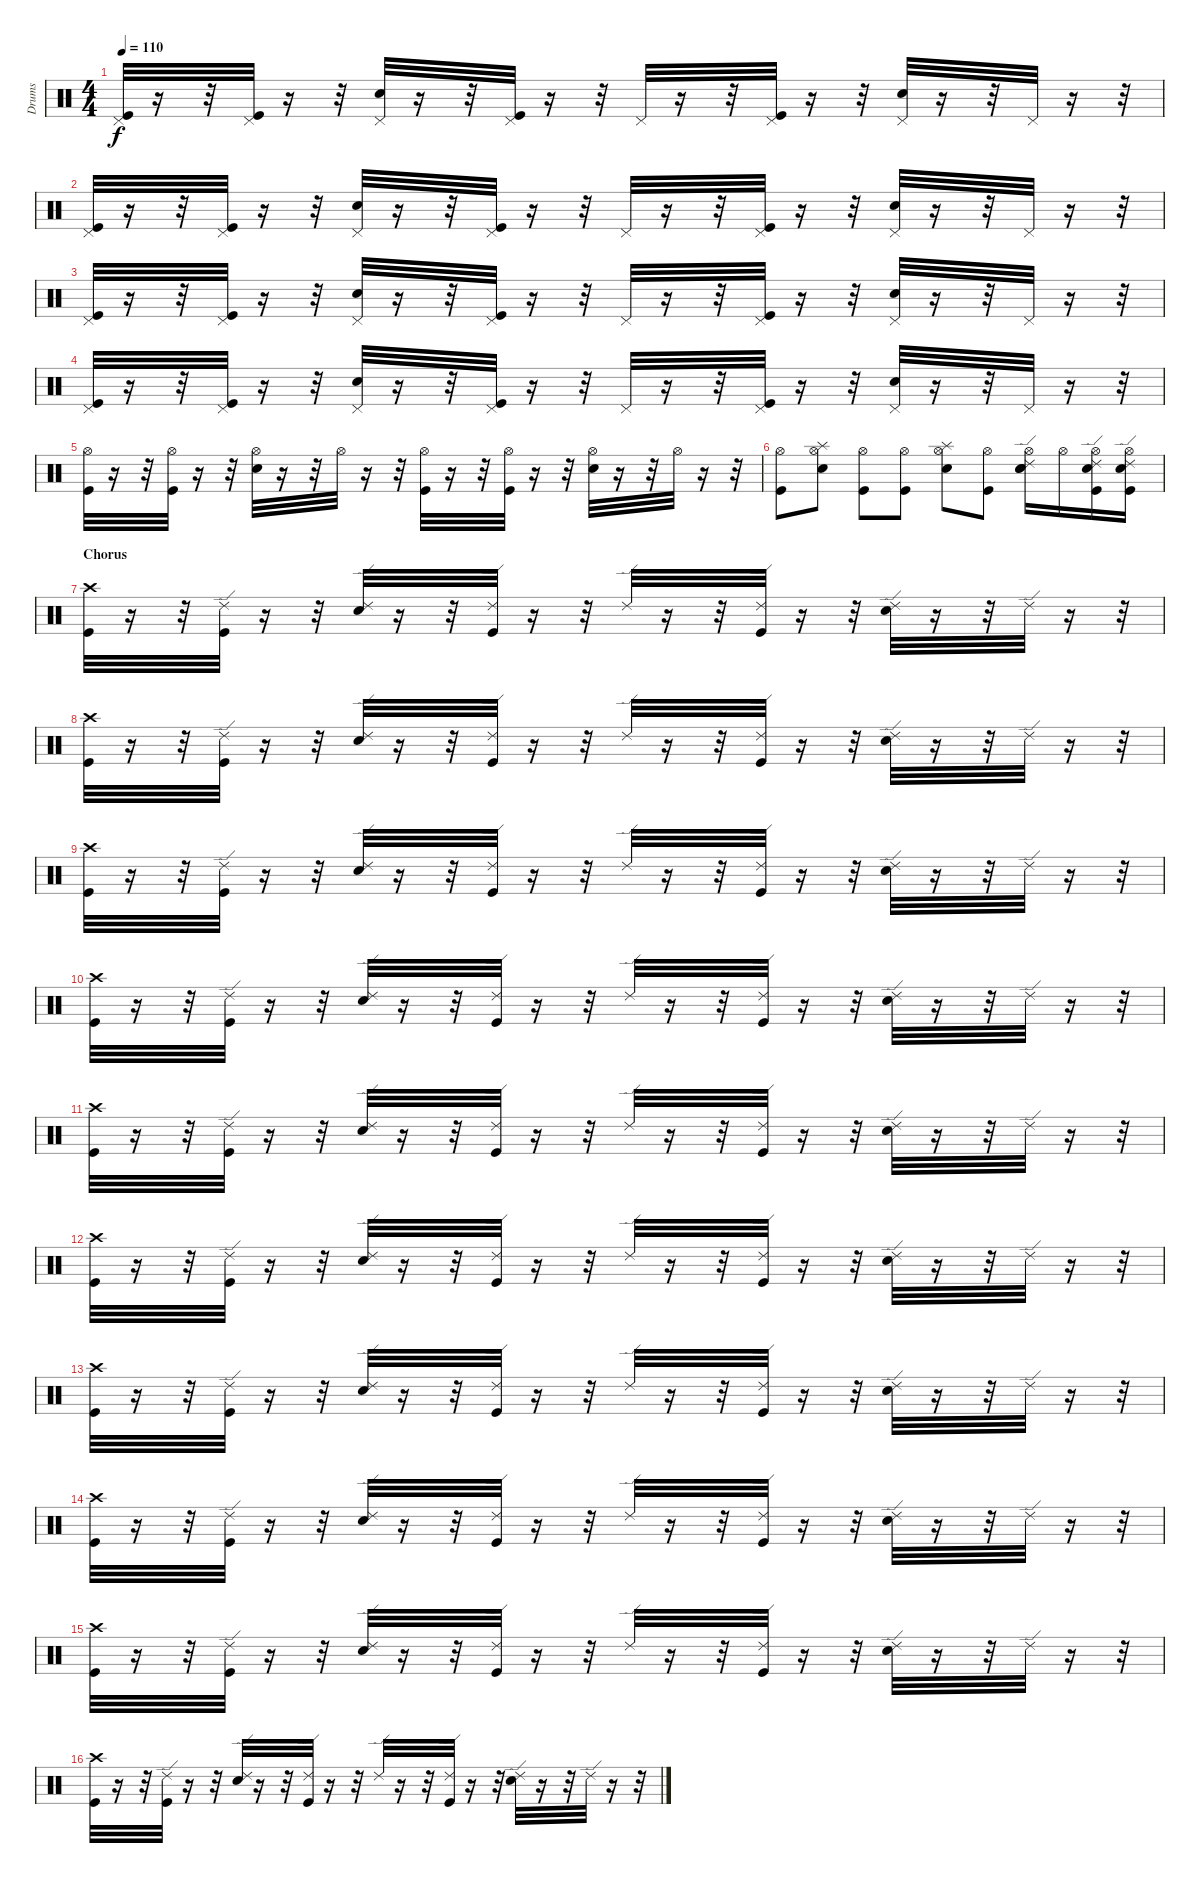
\track ("Drums" "Drums") {instrument percussion}
\staff {score}
\articulation defaults
\ts (4 4)
\tempo 110
\clef neutral
\ks c
("Pedal Hi-Hat (hit)" "Kick (hit)").32{dy f} r.16 r.32 ("Pedal Hi-Hat (hit)" "Kick (hit)").32 r.16 r.32 ("Pedal Hi-Hat (hit)" "Electric Snare (hit)").32 r.16 r.32 ("Pedal Hi-Hat (hit)" "Kick (hit)").32 r.16 r.32 "Pedal Hi-Hat (hit)".32 r.16 r.32 ("Pedal Hi-Hat (hit)" "Kick (hit)").32 r.16 r.32 ("Pedal Hi-Hat (hit)" "Electric Snare (hit)").32 r.16 r.32 "Pedal Hi-Hat (hit)".32 r.16 r.32 |
("Pedal Hi-Hat (hit)" "Kick (hit)").32 r.16 r.32 ("Pedal Hi-Hat (hit)" "Kick (hit)").32 r.16 r.32 ("Pedal Hi-Hat (hit)" "Electric Snare (hit)").32 r.16 r.32 ("Pedal Hi-Hat (hit)" "Kick (hit)").32 r.16 r.32 "Pedal Hi-Hat (hit)".32 r.16 r.32 ("Pedal Hi-Hat (hit)" "Kick (hit)").32 r.16 r.32 ("Pedal Hi-Hat (hit)" "Electric Snare (hit)").32 r.16 r.32 "Pedal Hi-Hat (hit)".32 r.16 r.32 |
("Pedal Hi-Hat (hit)" "Kick (hit)").32 r.16 r.32 ("Pedal Hi-Hat (hit)" "Kick (hit)").32 r.16 r.32 ("Pedal Hi-Hat (hit)" "Electric Snare (hit)").32 r.16 r.32 ("Pedal Hi-Hat (hit)" "Kick (hit)").32 r.16 r.32 "Pedal Hi-Hat (hit)".32 r.16 r.32 ("Pedal Hi-Hat (hit)" "Kick (hit)").32 r.16 r.32 ("Pedal Hi-Hat (hit)" "Electric Snare (hit)").32 r.16 r.32 "Pedal Hi-Hat (hit)".32 r.16 r.32 |
("Pedal Hi-Hat (hit)" "Kick (hit)").32 r.16 r.32 ("Pedal Hi-Hat (hit)" "Kick (hit)").32 r.16 r.32 ("Pedal Hi-Hat (hit)" "Electric Snare (hit)").32 r.16 r.32 ("Pedal Hi-Hat (hit)" "Kick (hit)").32 r.16 r.32 "Pedal Hi-Hat (hit)".32 r.16 r.32 ("Pedal Hi-Hat (hit)" "Kick (hit)").32 r.16 r.32 ("Pedal Hi-Hat (hit)" "Electric Snare (hit)").32 r.16 r.32 "Pedal Hi-Hat (hit)".32 r.16 r.32 |
("Hi-Hat (open)" "Kick (hit)").32 r.16 r.32 ("Hi-Hat (open)" "Kick (hit)").32 r.16 r.32 ("Hi-Hat (open)" "Electric Snare (hit)").32 r.16 r.32 "Hi-Hat (open)".32 r.16 r.32 ("Hi-Hat (open)" "Kick (hit)").32 r.16 r.32 ("Hi-Hat (open)" "Kick (hit)").32 r.16 r.32 ("Hi-Hat (open)" "Electric Snare (hit)").32 r.16 r.32 "Hi-Hat (open)".32 r.16 r.32 |
("Kick (hit)" "Hi-Hat (open)").8 ("Splash (hit)" "Snare (hit) 2" "Hi-Hat (open)").8 ("Kick (hit)" "Hi-Hat (open)").8 ("Kick (hit)" "Hi-Hat (open)").8 ("Splash (hit)" "Snare (hit) 2" "Hi-Hat (open)").8 ("Kick (hit)" "Hi-Hat (open)").8 ("Ride (edge) 2" "Electric Snare (hit)" "Snare (hit) 2" "Hi-Hat (open)").16 "Hi-Hat (open)".16 ("Ride (edge) 2" "Kick (hit)" "Snare (hit) 2" "Hi-Hat (open)").16 ("Ride (edge) 2" "Kick (hit)" "Snare (hit) 2" "Hi-Hat (open)").16 |
\section ("" "Chorus")
("Kick (hit)" "Crash high (hit)").32 r.16 r.32 ("Ride (edge) 2" "Kick (hit)").32 r.16 r.32 ("Ride (edge) 2" "Electric Snare (hit)").32 r.16 r.32 ("Ride (edge) 2" "Kick (hit)").32 r.16 r.32 "Ride (edge) 2".32 r.16 r.32 ("Ride (edge) 2" "Kick (hit)").32 r.16 r.32 ("Ride (edge) 2" "Electric Snare (hit)").32 r.16 r.32 "Ride (edge) 2".32 r.16 r.32 |
("Kick (hit)" "Crash high (hit)").32 r.16 r.32 ("Ride (edge) 2" "Kick (hit)").32 r.16 r.32 ("Ride (edge) 2" "Electric Snare (hit)").32 r.16 r.32 ("Ride (edge) 2" "Kick (hit)").32 r.16 r.32 "Ride (edge) 2".32 r.16 r.32 ("Ride (edge) 2" "Kick (hit)").32 r.16 r.32 ("Ride (edge) 2" "Electric Snare (hit)").32 r.16 r.32 "Ride (edge) 2".32 r.16 r.32 |
("Kick (hit)" "Crash high (hit)").32 r.16 r.32 ("Ride (edge) 2" "Kick (hit)").32 r.16 r.32 ("Ride (edge) 2" "Electric Snare (hit)").32 r.16 r.32 ("Ride (edge) 2" "Kick (hit)").32 r.16 r.32 "Ride (edge) 2".32 r.16 r.32 ("Ride (edge) 2" "Kick (hit)").32 r.16 r.32 ("Ride (edge) 2" "Electric Snare (hit)").32 r.16 r.32 "Ride (edge) 2".32 r.16 r.32 |
("Kick (hit)" "Crash high (hit)").32 r.16 r.32 ("Ride (edge) 2" "Kick (hit)").32 r.16 r.32 ("Ride (edge) 2" "Electric Snare (hit)").32 r.16 r.32 ("Ride (edge) 2" "Kick (hit)").32 r.16 r.32 "Ride (edge) 2".32 r.16 r.32 ("Ride (edge) 2" "Kick (hit)").32 r.16 r.32 ("Ride (edge) 2" "Electric Snare (hit)").32 r.16 r.32 "Ride (edge) 2".32 r.16 r.32 |
("Kick (hit)" "Crash high (hit)").32 r.16 r.32 ("Ride (edge) 2" "Kick (hit)").32 r.16 r.32 ("Ride (edge) 2" "Electric Snare (hit)").32 r.16 r.32 ("Ride (edge) 2" "Kick (hit)").32 r.16 r.32 "Ride (edge) 2".32 r.16 r.32 ("Ride (edge) 2" "Kick (hit)").32 r.16 r.32 ("Ride (edge) 2" "Electric Snare (hit)").32 r.16 r.32 "Ride (edge) 2".32 r.16 r.32 |
("Kick (hit)" "Crash high (hit)").32 r.16 r.32 ("Ride (edge) 2" "Kick (hit)").32 r.16 r.32 ("Ride (edge) 2" "Electric Snare (hit)").32 r.16 r.32 ("Ride (edge) 2" "Kick (hit)").32 r.16 r.32 "Ride (edge) 2".32 r.16 r.32 ("Ride (edge) 2" "Kick (hit)").32 r.16 r.32 ("Ride (edge) 2" "Electric Snare (hit)").32 r.16 r.32 "Ride (edge) 2".32 r.16 r.32 |
("Kick (hit)" "Crash high (hit)").32 r.16 r.32 ("Ride (edge) 2" "Kick (hit)").32 r.16 r.32 ("Ride (edge) 2" "Electric Snare (hit)").32 r.16 r.32 ("Ride (edge) 2" "Kick (hit)").32 r.16 r.32 "Ride (edge) 2".32 r.16 r.32 ("Ride (edge) 2" "Kick (hit)").32 r.16 r.32 ("Ride (edge) 2" "Electric Snare (hit)").32 r.16 r.32 "Ride (edge) 2".32 r.16 r.32 |
("Kick (hit)" "Crash high (hit)").32 r.16 r.32 ("Ride (edge) 2" "Kick (hit)").32 r.16 r.32 ("Ride (edge) 2" "Electric Snare (hit)").32 r.16 r.32 ("Ride (edge) 2" "Kick (hit)").32 r.16 r.32 "Ride (edge) 2".32 r.16 r.32 ("Ride (edge) 2" "Kick (hit)").32 r.16 r.32 ("Ride (edge) 2" "Electric Snare (hit)").32 r.16 r.32 "Ride (edge) 2".32 r.16 r.32 |
("Kick (hit)" "Crash high (hit)").32 r.16 r.32 ("Ride (edge) 2" "Kick (hit)").32 r.16 r.32 ("Ride (edge) 2" "Electric Snare (hit)").32 r.16 r.32 ("Ride (edge) 2" "Kick (hit)").32 r.16 r.32 "Ride (edge) 2".32 r.16 r.32 ("Ride (edge) 2" "Kick (hit)").32 r.16 r.32 ("Ride (edge) 2" "Electric Snare (hit)").32 r.16 r.32 "Ride (edge) 2".32 r.16 r.32 |
("Kick (hit)" "Crash high (hit)").32 r.16 r.32 ("Ride (edge) 2" "Kick (hit)").32 r.16 r.32 ("Ride (edge) 2" "Electric Snare (hit)").32 r.16 r.32 ("Ride (edge) 2" "Kick (hit)").32 r.16 r.32 "Ride (edge) 2".32 r.16 r.32 ("Ride (edge) 2" "Kick (hit)").32 r.16 r.32 ("Ride (edge) 2" "Electric Snare (hit)").32 r.16 r.32 "Ride (edge) 2".32 r.16 r.32
